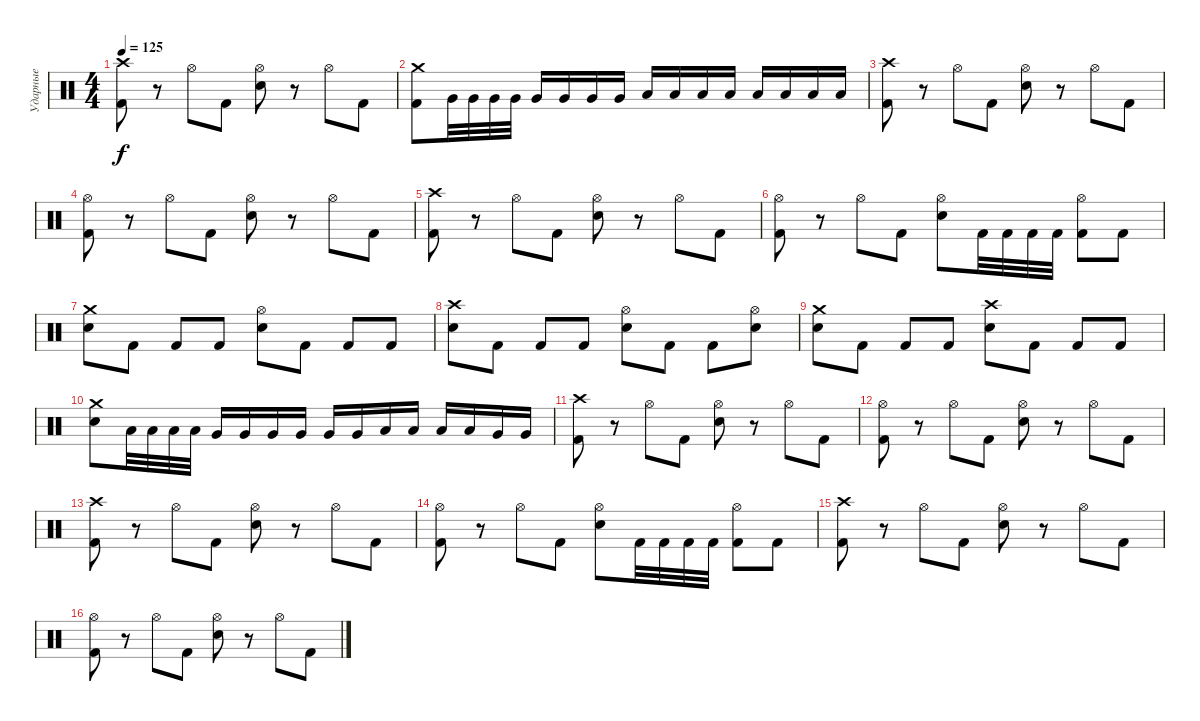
\track ("Ударные" "Ударные") {instrument percussion}
\staff {score}
\articulation defaults
\ts (4 4)
\tempo 125
\clef neutral
\ks c
("Crash high (hit)" "Kick (hit) 2").8{dy f} r.8 "Hi-Hat (open)".8 "Kick (hit) 2".8 ("Hi-Hat (open)" "Electric Snare (hit)").8 r.8 "Hi-Hat (open)".8 "Kick (hit) 2".8 |
("Crash medium (hit)" "Kick (hit) 2").8 "Very Low Tom (hit)".32 "Very Low Tom (hit)".32 "Very Low Tom (hit)".32 "Very Low Tom (hit)".32 "Very Low Tom (hit)".16 "Very Low Tom (hit)".16 "Very Low Tom (hit)".16 "Very Low Tom (hit)".16 "Low Floor Tom (hit)".16 "Low Floor Tom (hit)".16 "Low Floor Tom (hit)".16 "Low Floor Tom (hit)".16 "Low Floor Tom (hit)".16 "Low Floor Tom (hit)".16 "Low Floor Tom (hit)".16 "Low Floor Tom (hit)".16 |
("Crash high (hit)" "Kick (hit) 2").8 r.8 "Hi-Hat (open)".8 "Kick (hit) 2".8 ("Hi-Hat (open)" "Electric Snare (hit)").8 r.8 "Hi-Hat (open)".8 "Kick (hit) 2".8 |
("Hi-Hat (open)" "Kick (hit) 2").8 r.8 "Hi-Hat (open)".8 "Kick (hit) 2".8 ("Hi-Hat (open)" "Electric Snare (hit)").8 r.8 "Hi-Hat (open)".8 "Kick (hit) 2".8 |
("Crash high (hit)" "Kick (hit) 2").8 r.8 "Hi-Hat (open)".8 "Kick (hit) 2".8 ("Hi-Hat (open)" "Electric Snare (hit)").8 r.8 "Hi-Hat (open)".8 "Kick (hit) 2".8 |
("Hi-Hat (open)" "Kick (hit) 2").8 r.8 "Hi-Hat (open)".8 "Kick (hit) 2".8 ("Hi-Hat (open)" "Electric Snare (hit)").8 "Kick (hit) 2".32 "Kick (hit) 2".32 "Kick (hit) 2".32 "Kick (hit) 2".32 ("Hi-Hat (open)" "Kick (hit) 2").8 "Kick (hit) 2".8 |
("Crash medium (hit)" "Electric Snare (hit)").8 "Kick (hit) 2".8 "Kick (hit) 2".8 "Kick (hit) 2".8 ("Hi-Hat (open)" "Electric Snare (hit)").8 "Kick (hit) 2".8 "Kick (hit) 2".8 "Kick (hit) 2".8 |
("Crash high (hit)" "Electric Snare (hit)").8 "Kick (hit) 2".8 "Kick (hit) 2".8 "Kick (hit) 2".8 ("Hi-Hat (open)" "Electric Snare (hit)").8 "Kick (hit) 2".8 "Kick (hit) 2".8 ("Hi-Hat (open)" "Electric Snare (hit)").8 |
("Crash medium (hit)" "Electric Snare (hit)").8 "Kick (hit) 2".8 "Kick (hit) 2".8 "Kick (hit) 2".8 ("Crash high (hit)" "Electric Snare (hit)").8 "Kick (hit) 2".8 "Kick (hit) 2".8 "Kick (hit) 2".8 |
("Crash medium (hit)" "Electric Snare (hit)").8 "Low Tom (hit)".32 "Low Tom (hit)".32 "Low Tom (hit)".32 "Low Tom (hit)".32 "Very Low Tom (hit)".16 "Very Low Tom (hit)".16 "Very Low Tom (hit)".16 "Very Low Tom (hit)".16 "Very Low Tom (hit)".16 "Very Low Tom (hit)".16 "Low Tom (hit)".16 "Low Tom (hit)".16 "Low Tom (hit)".16 "Low Tom (hit)".16 "Very Low Tom (hit)".16 "Very Low Tom (hit)".16 |
("Crash high (hit)" "Kick (hit) 2").8 r.8 "Hi-Hat (open)".8 "Kick (hit) 2".8 ("Hi-Hat (open)" "Electric Snare (hit)").8 r.8 "Hi-Hat (open)".8 "Kick (hit) 2".8 |
("Hi-Hat (open)" "Kick (hit) 2").8 r.8 "Hi-Hat (open)".8 "Kick (hit) 2".8 ("Hi-Hat (open)" "Electric Snare (hit)").8 r.8 "Hi-Hat (open)".8 "Kick (hit) 2".8 |
("Crash high (hit)" "Kick (hit) 2").8 r.8 "Hi-Hat (open)".8 "Kick (hit) 2".8 ("Hi-Hat (open)" "Electric Snare (hit)").8 r.8 "Hi-Hat (open)".8 "Kick (hit) 2".8 |
("Hi-Hat (open)" "Kick (hit) 2").8 r.8 "Hi-Hat (open)".8 "Kick (hit) 2".8 ("Hi-Hat (open)" "Electric Snare (hit)").8 "Kick (hit) 2".32 "Kick (hit) 2".32 "Kick (hit) 2".32 "Kick (hit) 2".32 ("Hi-Hat (open)" "Kick (hit) 2").8 "Kick (hit) 2".8 |
("Crash high (hit)" "Kick (hit) 2").8 r.8 "Hi-Hat (open)".8 "Kick (hit) 2".8 ("Hi-Hat (open)" "Electric Snare (hit)").8 r.8 "Hi-Hat (open)".8 "Kick (hit) 2".8 |
("Hi-Hat (open)" "Kick (hit) 2").8 r.8 "Hi-Hat (open)".8 "Kick (hit) 2".8 ("Hi-Hat (open)" "Electric Snare (hit)").8 r.8 "Hi-Hat (open)".8 "Kick (hit) 2".8
